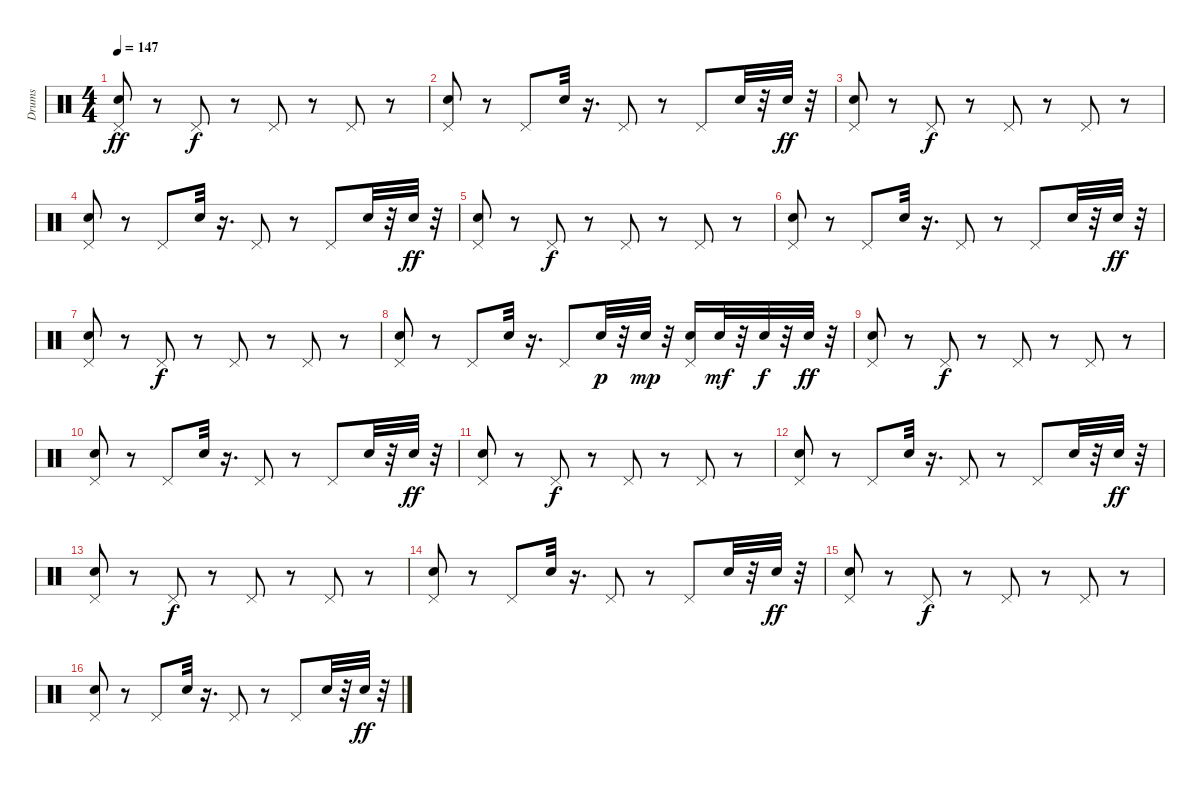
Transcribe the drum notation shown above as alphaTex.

\track ("Drums" "Drums") {instrument percussion}
\staff {score}
\articulation defaults
\ts (4 4)
\tempo 147
\clef neutral
\ks c
("Pedal Hi-Hat (hit)" "Snare (hit) 2").8{dy ff} r.8 "Pedal Hi-Hat (hit)".8{dy f} r.8 "Pedal Hi-Hat (hit)".8 r.8 "Pedal Hi-Hat (hit)".8 r.8 |
("Pedal Hi-Hat (hit)" "Snare (hit) 2").8 r.8 "Pedal Hi-Hat (hit)".8 "Snare (hit) 2".32 r.16{d} "Pedal Hi-Hat (hit)".8 r.8 "Pedal Hi-Hat (hit)".8 "Snare (hit) 2".32 r.32 "Snare (hit) 2".32{dy ff} r.32 |
("Pedal Hi-Hat (hit)" "Snare (hit) 2").8 r.8 "Pedal Hi-Hat (hit)".8{dy f} r.8 "Pedal Hi-Hat (hit)".8 r.8 "Pedal Hi-Hat (hit)".8 r.8 |
("Pedal Hi-Hat (hit)" "Snare (hit) 2").8 r.8 "Pedal Hi-Hat (hit)".8 "Snare (hit) 2".32 r.16{d} "Pedal Hi-Hat (hit)".8 r.8 "Pedal Hi-Hat (hit)".8 "Snare (hit) 2".32 r.32 "Snare (hit) 2".32{dy ff} r.32 |
("Pedal Hi-Hat (hit)" "Snare (hit) 2").8 r.8 "Pedal Hi-Hat (hit)".8{dy f} r.8 "Pedal Hi-Hat (hit)".8 r.8 "Pedal Hi-Hat (hit)".8 r.8 |
("Pedal Hi-Hat (hit)" "Snare (hit) 2").8 r.8 "Pedal Hi-Hat (hit)".8 "Snare (hit) 2".32 r.16{d} "Pedal Hi-Hat (hit)".8 r.8 "Pedal Hi-Hat (hit)".8 "Snare (hit) 2".32 r.32 "Snare (hit) 2".32{dy ff} r.32 |
("Pedal Hi-Hat (hit)" "Snare (hit) 2").8 r.8 "Pedal Hi-Hat (hit)".8{dy f} r.8 "Pedal Hi-Hat (hit)".8 r.8 "Pedal Hi-Hat (hit)".8 r.8 |
("Pedal Hi-Hat (hit)" "Snare (hit) 2").8 r.8 "Pedal Hi-Hat (hit)".8 "Snare (hit) 2".32 r.16{d} "Pedal Hi-Hat (hit)".8 "Snare (hit) 2".32{dy p} r.32 "Snare (hit) 2".32{dy mp} r.32 ("Pedal Hi-Hat (hit)" "Snare (hit) 2").16 "Snare (hit) 2".32{dy mf} r.32 "Snare (hit) 2".32{dy f} r.32 "Snare (hit) 2".32{dy ff} r.32 |
("Pedal Hi-Hat (hit)" "Snare (hit) 2").8 r.8 "Pedal Hi-Hat (hit)".8{dy f} r.8 "Pedal Hi-Hat (hit)".8 r.8 "Pedal Hi-Hat (hit)".8 r.8 |
("Pedal Hi-Hat (hit)" "Snare (hit) 2").8 r.8 "Pedal Hi-Hat (hit)".8 "Snare (hit) 2".32 r.16{d} "Pedal Hi-Hat (hit)".8 r.8 "Pedal Hi-Hat (hit)".8 "Snare (hit) 2".32 r.32 "Snare (hit) 2".32{dy ff} r.32 |
("Pedal Hi-Hat (hit)" "Snare (hit) 2").8 r.8 "Pedal Hi-Hat (hit)".8{dy f} r.8 "Pedal Hi-Hat (hit)".8 r.8 "Pedal Hi-Hat (hit)".8 r.8 |
("Pedal Hi-Hat (hit)" "Snare (hit) 2").8 r.8 "Pedal Hi-Hat (hit)".8 "Snare (hit) 2".32 r.16{d} "Pedal Hi-Hat (hit)".8 r.8 "Pedal Hi-Hat (hit)".8 "Snare (hit) 2".32 r.32 "Snare (hit) 2".32{dy ff} r.32 |
("Pedal Hi-Hat (hit)" "Snare (hit) 2").8 r.8 "Pedal Hi-Hat (hit)".8{dy f} r.8 "Pedal Hi-Hat (hit)".8 r.8 "Pedal Hi-Hat (hit)".8 r.8 |
("Pedal Hi-Hat (hit)" "Snare (hit) 2").8 r.8 "Pedal Hi-Hat (hit)".8 "Snare (hit) 2".32 r.16{d} "Pedal Hi-Hat (hit)".8 r.8 "Pedal Hi-Hat (hit)".8 "Snare (hit) 2".32 r.32 "Snare (hit) 2".32{dy ff} r.32 |
("Pedal Hi-Hat (hit)" "Snare (hit) 2").8 r.8 "Pedal Hi-Hat (hit)".8{dy f} r.8 "Pedal Hi-Hat (hit)".8 r.8 "Pedal Hi-Hat (hit)".8 r.8 |
("Pedal Hi-Hat (hit)" "Snare (hit) 2").8 r.8 "Pedal Hi-Hat (hit)".8 "Snare (hit) 2".32 r.16{d} "Pedal Hi-Hat (hit)".8 r.8 "Pedal Hi-Hat (hit)".8 "Snare (hit) 2".32 r.32 "Snare (hit) 2".32{dy ff} r.32
